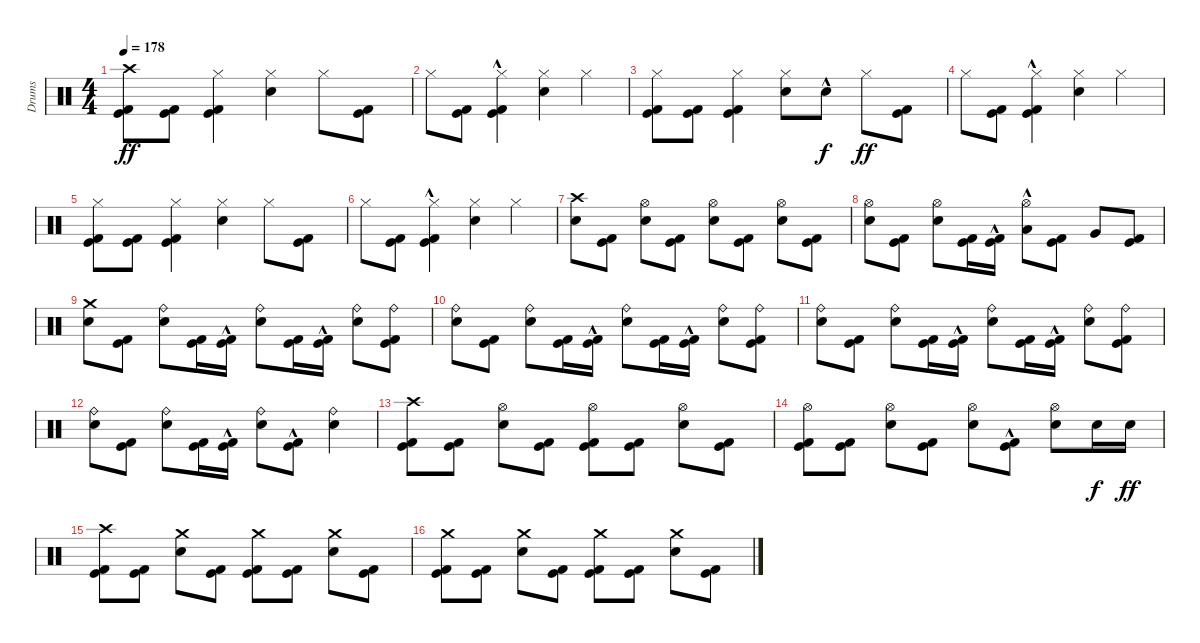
\track ("Drums" "Drums") {instrument percussion}
\staff {score}
\articulation defaults
\ts (4 4)
\tempo 178
\clef neutral
\ks c
("Kick (hit)" "Kick (hit) 2" "Crash high (hit)").8{dy ff} ("Kick (hit)" "Kick (hit) 2").8 ("Kick (hit)" "Kick (hit) 2" "Hi-Hat (closed)").4 ("Electric Snare (hit)" "Hi-Hat (closed)").4 "Hi-Hat (closed)".8 ("Kick (hit)" "Kick (hit) 2").8 |
"Hi-Hat (closed)".8 ("Kick (hit)" "Kick (hit) 2").8 ("Kick (hit)"{hac} "Kick (hit) 2"{hac} "Hi-Hat (closed)").4 ("Electric Snare (hit)" "Hi-Hat (closed)").4 "Hi-Hat (closed)".4 |
("Kick (hit)" "Kick (hit) 2" "Hi-Hat (closed)").8 ("Kick (hit)" "Kick (hit) 2").8 ("Kick (hit)" "Kick (hit) 2" "Hi-Hat (closed)").4 ("Electric Snare (hit)" "Hi-Hat (closed)").8 "Electric Snare (hit)"{hac}.8{dy f} "Hi-Hat (closed)".8{dy ff} ("Kick (hit)" "Kick (hit) 2").8 |
"Hi-Hat (closed)".8 ("Kick (hit)" "Kick (hit) 2").8 ("Kick (hit)"{hac} "Kick (hit) 2"{hac} "Hi-Hat (closed)").4 ("Electric Snare (hit)" "Hi-Hat (closed)").4 "Hi-Hat (closed)".4 |
("Kick (hit)" "Kick (hit) 2" "Hi-Hat (closed)").8 ("Kick (hit)" "Kick (hit) 2").8 ("Kick (hit)" "Kick (hit) 2" "Hi-Hat (closed)").4 ("Electric Snare (hit)" "Hi-Hat (closed)").4 "Hi-Hat (closed)".8 ("Kick (hit)" "Kick (hit) 2").8 |
"Hi-Hat (closed)".8 ("Kick (hit)" "Kick (hit) 2").8 ("Kick (hit)"{hac} "Kick (hit) 2"{hac} "Hi-Hat (closed)").4 ("Electric Snare (hit)" "Hi-Hat (closed)").4 "Hi-Hat (closed)".4 |
("Electric Snare (hit)" "Crash high (hit)").8 ("Kick (hit)" "Kick (hit) 2").8 ("Electric Snare (hit)" "Hi-Hat (open)").8 ("Kick (hit)" "Kick (hit) 2").8 ("Electric Snare (hit)" "Hi-Hat (open)").8 ("Kick (hit)" "Kick (hit) 2").8 ("Electric Snare (hit)" "Hi-Hat (open)").8 ("Kick (hit)" "Kick (hit) 2").8 |
("Electric Snare (hit)" "Hi-Hat (open)").8 ("Kick (hit)" "Kick (hit) 2").8 ("Electric Snare (hit)" "Hi-Hat (open)").8 ("Kick (hit)" "Kick (hit) 2").16 ("Kick (hit)"{hac} "Kick (hit) 2"{hac}).16 ("Low Tom (hit)" "Hi-Hat (open)"{hac}).8 ("Kick (hit)" "Kick (hit) 2").8 "Very Low Tom (hit)".8 ("Kick (hit)" "Kick (hit) 2").8 |
("Electric Snare (hit)" "Crash medium (hit)").8 ("Kick (hit)" "Kick (hit) 2").8 ("Electric Snare (hit)" "Ride (bell)").8 ("Kick (hit)" "Kick (hit) 2").16 ("Kick (hit)"{hac} "Kick (hit) 2"{hac}).16 ("Electric Snare (hit)" "Ride (bell)").8 ("Kick (hit)" "Kick (hit) 2").16 ("Kick (hit)"{hac} "Kick (hit) 2"{hac}).16 ("Electric Snare (hit)" "Ride (bell)").8 ("Kick (hit)" "Kick (hit) 2" "Ride (bell)").8 |
("Electric Snare (hit)" "Ride (bell)").8 ("Kick (hit)" "Kick (hit) 2").8 ("Electric Snare (hit)" "Ride (bell)").8 ("Kick (hit)" "Kick (hit) 2").16 ("Kick (hit)"{hac} "Kick (hit) 2"{hac}).16 ("Electric Snare (hit)" "Ride (bell)").8 ("Kick (hit)" "Kick (hit) 2").16 ("Kick (hit)"{hac} "Kick (hit) 2"{hac}).16 ("Electric Snare (hit)" "Ride (bell)").8 ("Kick (hit)" "Kick (hit) 2" "Ride (bell)").8 |
("Electric Snare (hit)" "Ride (bell)").8 ("Kick (hit)" "Kick (hit) 2").8 ("Electric Snare (hit)" "Ride (bell)").8 ("Kick (hit)" "Kick (hit) 2").16 ("Kick (hit)"{hac} "Kick (hit) 2"{hac}).16 ("Electric Snare (hit)" "Ride (bell)").8 ("Kick (hit)" "Kick (hit) 2").16 ("Kick (hit)"{hac} "Kick (hit) 2"{hac}).16 ("Electric Snare (hit)" "Ride (bell)").8 ("Kick (hit)" "Kick (hit) 2" "Ride (bell)").8 |
("Electric Snare (hit)" "Ride (bell)").8 ("Kick (hit)" "Kick (hit) 2").8 ("Electric Snare (hit)" "Ride (bell)").8 ("Kick (hit)" "Kick (hit) 2").16 ("Kick (hit)"{hac} "Kick (hit) 2"{hac}).16 ("Electric Snare (hit)" "Ride (bell)").8 ("Kick (hit)"{hac} "Kick (hit) 2"{hac}).8 ("Electric Snare (hit)" "Ride (bell)").4 |
("Kick (hit)" "Kick (hit) 2" "Crash high (hit)").8 ("Kick (hit)" "Kick (hit) 2").8 ("Electric Snare (hit)" "Hi-Hat (open)").8 ("Kick (hit)" "Kick (hit) 2").8 ("Kick (hit)" "Kick (hit) 2" "Hi-Hat (open)").8 ("Kick (hit)" "Kick (hit) 2").8 ("Electric Snare (hit)" "Hi-Hat (open)").8 ("Kick (hit)" "Kick (hit) 2").8 |
("Kick (hit)" "Kick (hit) 2" "Hi-Hat (open)").8 ("Kick (hit)" "Kick (hit) 2").8 ("Electric Snare (hit)" "Hi-Hat (open)").8 ("Kick (hit)" "Kick (hit) 2").8 ("Electric Snare (hit)" "Hi-Hat (open)").8 ("Kick (hit)"{hac} "Kick (hit) 2"{hac}).8 ("Electric Snare (hit)" "Hi-Hat (open)").8 "Electric Snare (hit)".16{dy f} "Electric Snare (hit)".16{dy ff} |
("Kick (hit)" "Kick (hit) 2" "Crash high (hit)").8 ("Kick (hit)" "Kick (hit) 2").8 ("Electric Snare (hit)" "Crash medium (hit)").8 ("Kick (hit)" "Kick (hit) 2").8 ("Kick (hit)" "Kick (hit) 2" "Crash medium (hit)").8 ("Kick (hit)" "Kick (hit) 2").8 ("Electric Snare (hit)" "Crash medium (hit)").8 ("Kick (hit)" "Kick (hit) 2").8 |
("Kick (hit)" "Kick (hit) 2" "Crash medium (hit)").8 ("Kick (hit)" "Kick (hit) 2").8 ("Electric Snare (hit)" "Crash medium (hit)").8 ("Kick (hit)" "Kick (hit) 2").8 ("Kick (hit)" "Kick (hit) 2" "Crash medium (hit)").8 ("Kick (hit)" "Kick (hit) 2").8 ("Electric Snare (hit)" "Crash medium (hit)").8 ("Kick (hit)" "Kick (hit) 2").8
